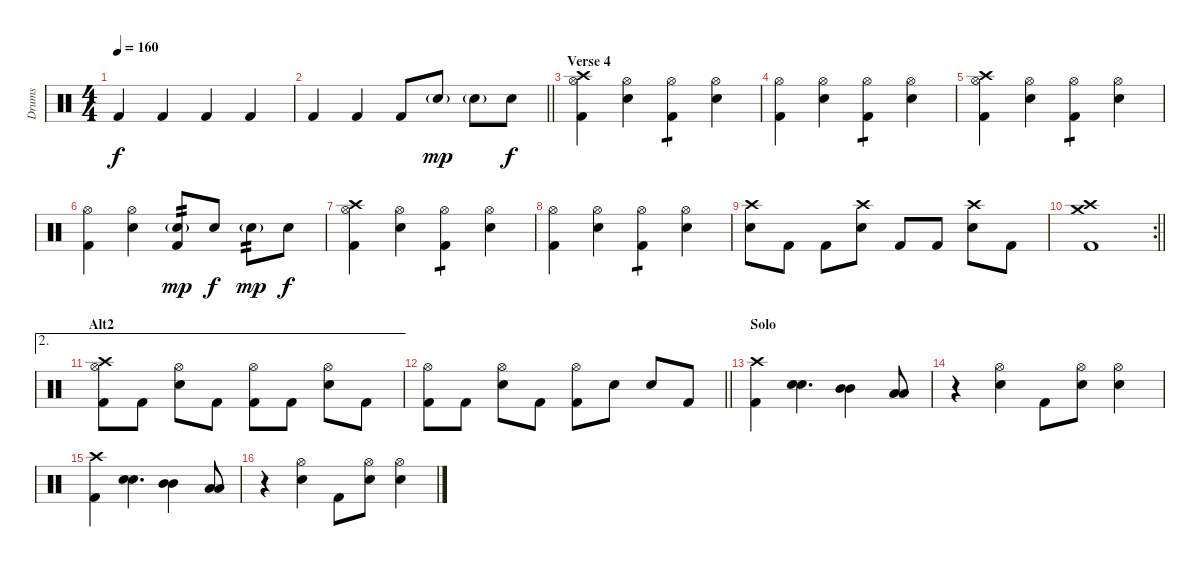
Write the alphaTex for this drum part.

\track ("Drums" "Drums") {instrument percussion}
\staff {score}
\articulation defaults
\ts (4 4)
\tempo 160
\clef neutral
\ks c "Kick (hit) 2".4{dy f} "Kick (hit) 2".4 "Kick (hit) 2".4 "Kick (hit) 2".4
|
\barLineRight lightlight "Kick (hit) 2".4 "Kick (hit) 2".4 "Kick (hit) 2".8 "Electric Snare (hit)"{g}.8{dy mp} "Electric Snare (hit)"{g}.8 "Electric Snare (hit)".8{dy f}
|
\section ("" "Verse 4")
("Crash high (hit)" "Hi-Hat (open)" "Kick (hit) 2").4 ("Electric Snare (hit)" "Hi-Hat (open)").4 ("Hi-Hat (open)" "Kick (hit) 2").4{tp 1} ("Electric Snare (hit)" "Hi-Hat (open)").4 |
("Hi-Hat (open)" "Kick (hit) 2").4 ("Electric Snare (hit)" "Hi-Hat (open)").4 ("Hi-Hat (open)" "Kick (hit) 2").4{tp 1} ("Electric Snare (hit)" "Hi-Hat (open)").4 |
("Crash high (hit)" "Hi-Hat (open)" "Kick (hit) 2").4 ("Electric Snare (hit)" "Hi-Hat (open)").4 ("Hi-Hat (open)" "Kick (hit) 2").4{tp 1} ("Electric Snare (hit)" "Hi-Hat (open)").4 |
("Hi-Hat (open)" "Kick (hit) 2").4 ("Electric Snare (hit)" "Hi-Hat (open)").4 ("Electric Snare (hit)"{g} "Kick (hit) 2").8{tp 2 dy mp} "Electric Snare (hit)".8{dy f} "Electric Snare (hit)"{g}.8{tp 2 dy mp} "Electric Snare (hit)".8{dy f} |
("Crash high (hit)" "Hi-Hat (open)" "Kick (hit) 2").4 ("Electric Snare (hit)" "Hi-Hat (open)").4 ("Hi-Hat (open)" "Kick (hit) 2").4{tp 1} ("Electric Snare (hit)" "Hi-Hat (open)").4 |
("Hi-Hat (open)" "Kick (hit) 2").4 ("Electric Snare (hit)" "Hi-Hat (open)").4 ("Hi-Hat (open)" "Kick (hit) 2").4{tp 1} ("Electric Snare (hit)" "Hi-Hat (open)").4 |
("Crash high (hit)" "Electric Snare (hit)").8 "Kick (hit) 2".8 "Kick (hit) 2".8 ("Crash high (hit)" "Electric Snare (hit)").8 "Kick (hit) 2".8 "Kick (hit) 2".8 ("Crash high (hit)" "Electric Snare (hit)").8 "Kick (hit) 2".8 |
\rc 2
\barLineRight lightlight
("Crash high (hit)" "Crash medium (hit)" "Kick (hit) 2").1 |
\ae 2
\section ("" "Alt2")
("Crash high (hit)" "Hi-Hat (open)" "Kick (hit) 2").8 "Kick (hit) 2".8 ("Hi-Hat (open)" "Electric Snare (hit)").8 "Kick (hit) 2".8 ("Hi-Hat (open)" "Kick (hit) 2").8 "Kick (hit) 2".8 ("Hi-Hat (open)" "Electric Snare (hit)").8 "Kick (hit) 2".8 |
\barLineRight lightlight
("Hi-Hat (open)" "Kick (hit) 2").8 "Kick (hit) 2".8 ("Hi-Hat (open)" "Electric Snare (hit)").8 "Kick (hit) 2".8 ("Hi-Hat (open)" "Kick (hit) 2").8 "Electric Snare (hit)".8 "Electric Snare (hit)".8 "Kick (hit) 2".8 |
\section ("" "Solo")
("Crash high (hit)" "Kick (hit) 2").4 ("Electric Snare (hit)" "Electric Snare (hit)").4{d bu 240} ("Mid Tom (hit)" "Mid Tom (hit)").4{bu 480} ("Low Tom (hit)" "Low Tom (hit)").8{bu 480} |
r.4 ("Hi-Hat (open)" "Electric Snare (hit)").4 "Kick (hit) 2".8 ("Hi-Hat (open)" "Electric Snare (hit)").8 ("Hi-Hat (open)" "Electric Snare (hit)").4 |
("Crash high (hit)" "Kick (hit) 2").4 ("Electric Snare (hit)" "Electric Snare (hit)").4{d bu 240} ("Mid Tom (hit)" "Mid Tom (hit)").4{bu 480} ("Low Tom (hit)" "Low Tom (hit)").8{bu 480} |
r.4 ("Hi-Hat (open)" "Electric Snare (hit)").4 "Kick (hit) 2".8 ("Hi-Hat (open)" "Electric Snare (hit)").8 ("Hi-Hat (open)" "Electric Snare (hit)").4
